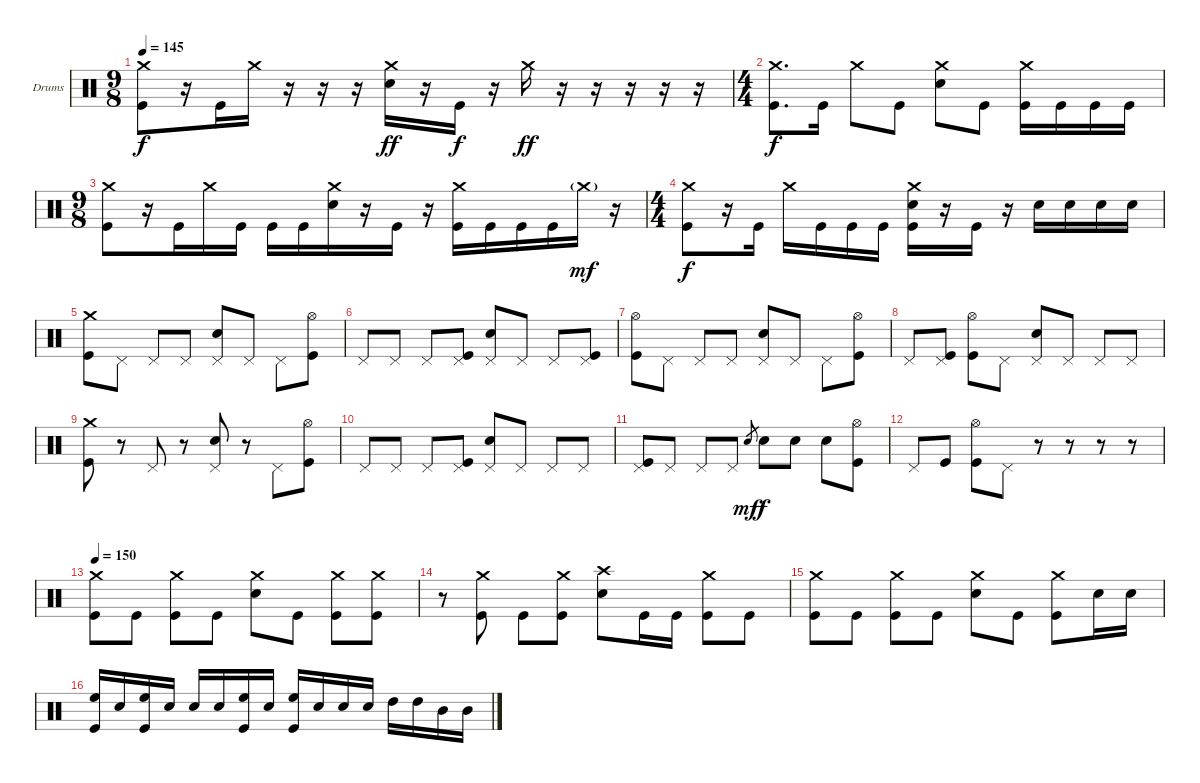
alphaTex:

\bracketExtendMode groupsimilarinstruments
\firstSystemTrackNameOrientation horizontal
\otherSystemsTrackNameOrientation horizontal
\track ("Drumkit" "Drums") {instrument percussion}
\staff {score}
\articulation defaults
\ts (9 8)
\beaming (8 3 3 3)
\tempo 145
\clef neutral
\ks c
("Crash medium (hit)" "Kick (hit)").8{dy f} r.16 "Kick (hit)".16 "Crash medium (hit)".16 r.16 r.16 r.16 ("Crash medium (hit)" "Snare (hit) 2").16{dy ff} r.16 "Kick (hit)".16{dy f} r.16 "Crash medium (hit)".16{dy ff} r.16 r.16 r.16 r.16 r.16 |
\ts (4 4)
\beaming (8 2 2 2 2)
("Crash medium (hit)" "Kick (hit)").8{d dy f} "Kick (hit)".16 "Crash medium (hit)".8 "Kick (hit)".8 ("Crash medium (hit)" "Snare (hit) 2").8 "Kick (hit)".8 ("Crash medium (hit)" "Kick (hit)").16 "Kick (hit)".16 "Kick (hit)".16 "Kick (hit)".16 |
\ts (9 8)
\beaming (8 3 3 3)
("Crash medium (hit)" "Kick (hit)").8 r.16 "Kick (hit)".16 "Crash medium (hit)".16 "Kick (hit)".16 "Kick (hit)".16 "Kick (hit)".16 ("Crash medium (hit)" "Snare (hit) 2").16 r.16 "Kick (hit)".16 r.16 ("Crash medium (hit)" "Kick (hit)").16 "Kick (hit)".16 "Kick (hit)".16 "Kick (hit)".16 "Crash medium (hit)"{g}.16{dy mf} r.16 |
\ts (4 4)
\beaming (8 2 2 2 2)
("Crash medium (hit)" "Kick (hit)").8{dy f} r.16 "Kick (hit)".16 "Crash medium (hit)".16 "Kick (hit)".16 "Kick (hit)".16 "Kick (hit)".16 ("Crash medium (hit)" "Snare (hit) 2" "Kick (hit)").16 r.16 "Kick (hit)".16 r.16 "Snare (hit) 2".16 "Snare (hit) 2".16 "Snare (hit) 2".16 "Snare (hit) 2".16 |
("Crash medium (hit)" "Kick (hit)").8 "Pedal Hi-Hat (hit)".8 "Pedal Hi-Hat (hit)".8 "Pedal Hi-Hat (hit)".8 ("Pedal Hi-Hat (hit)" "Snare (hit) 2").8 "Pedal Hi-Hat (hit)".8 "Pedal Hi-Hat (hit)".8 ("Hi-Hat (open)" "Kick (hit)").8 |
"Pedal Hi-Hat (hit)".8 "Pedal Hi-Hat (hit)".8 "Pedal Hi-Hat (hit)".8 ("Pedal Hi-Hat (hit)" "Kick (hit)").8 ("Pedal Hi-Hat (hit)" "Snare (hit) 2").8 "Pedal Hi-Hat (hit)".8 "Pedal Hi-Hat (hit)".8 ("Pedal Hi-Hat (hit)" "Kick (hit)").8 |
("Hi-Hat (open)" "Kick (hit)").8 "Pedal Hi-Hat (hit)".8 "Pedal Hi-Hat (hit)".8 "Pedal Hi-Hat (hit)".8 ("Pedal Hi-Hat (hit)" "Snare (hit) 2").8 "Pedal Hi-Hat (hit)".8 "Pedal Hi-Hat (hit)".8 ("Hi-Hat (open)" "Kick (hit)").8 |
"Pedal Hi-Hat (hit)".8 ("Pedal Hi-Hat (hit)" "Kick (hit)").8 ("Hi-Hat (open)" "Kick (hit)").8 "Pedal Hi-Hat (hit)".8 ("Pedal Hi-Hat (hit)" "Snare (hit) 2").8 "Pedal Hi-Hat (hit)".8 "Pedal Hi-Hat (hit)".8 "Pedal Hi-Hat (hit)".8 |
("Crash medium (hit)" "Kick (hit)").8 r.8 "Pedal Hi-Hat (hit)".8 r.8 ("Pedal Hi-Hat (hit)" "Snare (hit) 2").8 r.8 "Pedal Hi-Hat (hit)".8 ("Hi-Hat (open)" "Kick (hit)").8 |
"Pedal Hi-Hat (hit)".8 "Pedal Hi-Hat (hit)".8 "Pedal Hi-Hat (hit)".8 ("Pedal Hi-Hat (hit)" "Kick (hit)").8 ("Pedal Hi-Hat (hit)" "Snare (hit) 2").8 "Pedal Hi-Hat (hit)".8 "Pedal Hi-Hat (hit)".8 "Pedal Hi-Hat (hit)".8 |
("Pedal Hi-Hat (hit)" "Kick (hit)").8 "Pedal Hi-Hat (hit)".8 "Pedal Hi-Hat (hit)".8 "Pedal Hi-Hat (hit)".8 "Snare (hit) 2".8{gr dy mf} "Snare (hit) 2".8{dy f} "Snare (hit) 2".8 "Snare (hit) 2".8 ("Hi-Hat (open)" "Kick (hit)").8 |
"Pedal Hi-Hat (hit)".8 "Kick (hit)".8 ("Hi-Hat (open)" "Kick (hit)").8 "Pedal Hi-Hat (hit)".8 r.8 r.8 r.8 r.8 |
\tempo 150
("Crash medium (hit)" "Kick (hit)").8 "Kick (hit)".8 ("Crash medium (hit)" "Kick (hit)").8 "Kick (hit)".8 ("Crash medium (hit)" "Snare (hit) 2").8 "Kick (hit)".8 ("Crash medium (hit)" "Kick (hit)").8 ("Crash medium (hit)" "Kick (hit)").8 |
r.8 ("Crash medium (hit)" "Kick (hit)").8 "Kick (hit)".8 ("Crash medium (hit)" "Kick (hit)").8 ("Crash high (hit)" "Snare (hit) 2").8 "Kick (hit)".16 "Kick (hit)".16 ("Crash medium (hit)" "Kick (hit)").8 "Kick (hit)".8 |
("Crash medium (hit)" "Kick (hit)").8 "Kick (hit)".8 ("Crash medium (hit)" "Kick (hit)").8 "Kick (hit)".8 ("Crash medium (hit)" "Snare (hit) 2").8 "Kick (hit)".8 ("Crash medium (hit)" "Kick (hit)").8 "Snare (hit) 2".16 "Snare (hit) 2".16 |
("High Floor Tom (hit)" "Kick (hit)").16 "Snare (hit) 2".16 ("High Floor Tom (hit)" "Kick (hit)").16 "Snare (hit) 2".16 "Snare (hit) 2".16 "Snare (hit) 2".16 ("High Floor Tom (hit)" "Kick (hit)").16 "Snare (hit) 2".16 ("High Floor Tom (hit)" "Kick (hit)").16 "Snare (hit) 2".16 "Snare (hit) 2".16 "Snare (hit) 2".16 "High Tom (hit)".16 "High Tom (hit)".16 "Mid Tom (hit)".16 "Mid Tom (hit)".16
